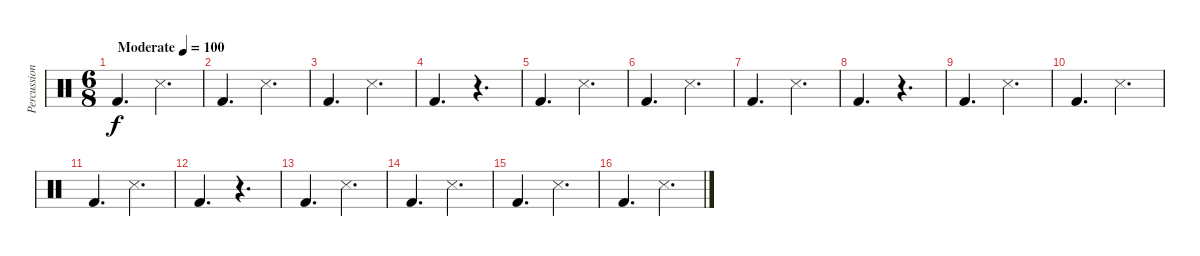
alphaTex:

\track ("Percussion" "Percussion") {instrument percussion}
\staff {score}
\articulation defaults
\ts (6 8)
\tempo (100 "Moderate")
\clef neutral
\ks c "Kick (hit) 2".4{d dy f} "Snare (side stick) 3".4{d}
|
"Kick (hit) 2".4{d} "Snare (side stick) 3".4{d} |
"Kick (hit) 2".4{d} "Snare (side stick) 3".4{d} |
"Kick (hit) 2".4{d} r.4{d} |
"Kick (hit) 2".4{d} "Snare (side stick) 3".4{d} |
"Kick (hit) 2".4{d} "Snare (side stick) 3".4{d} |
"Kick (hit) 2".4{d} "Snare (side stick) 3".4{d} |
"Kick (hit) 2".4{d} r.4{d} |
"Kick (hit) 2".4{d} "Snare (side stick) 3".4{d} |
"Kick (hit) 2".4{d} "Snare (side stick) 3".4{d} |
"Kick (hit) 2".4{d} "Snare (side stick) 3".4{d} |
"Kick (hit) 2".4{d} r.4{d} |
"Kick (hit) 2".4{d} "Snare (side stick) 3".4{d} |
"Kick (hit) 2".4{d} "Snare (side stick) 3".4{d} |
"Kick (hit) 2".4{d} "Snare (side stick) 3".4{d} |
"Kick (hit) 2".4{d} "Snare (side stick) 3".4{d}
